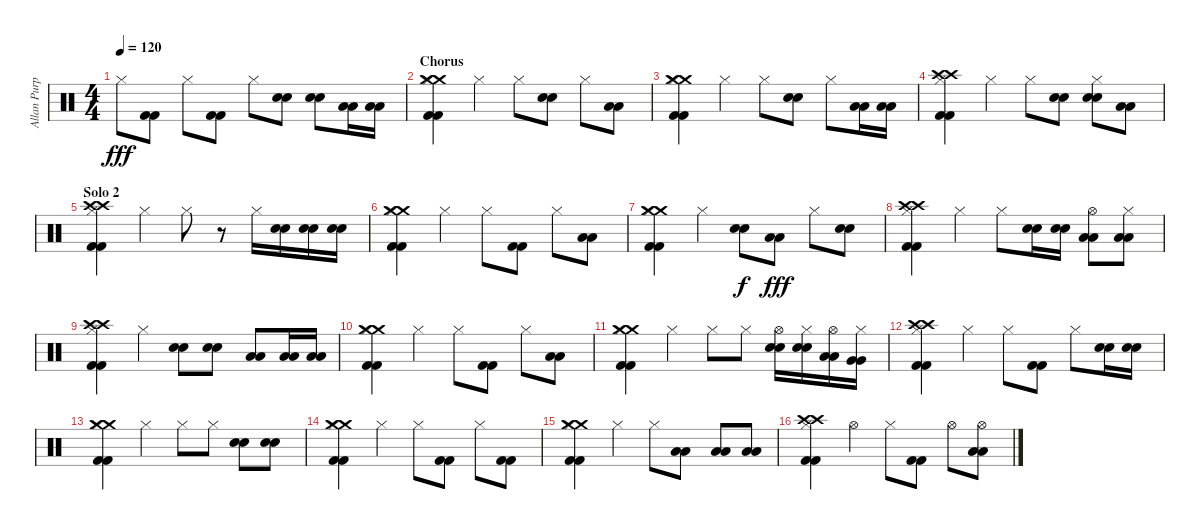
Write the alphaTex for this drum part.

\track ("Allan Purple" "Allan Purp") {instrument percussion}
\staff {score}
\articulation defaults
\ts (4 4)
\tempo 120
\clef neutral
\ks c "Hi-Hat (closed)".8{dy fff}
("Kick (hit) 2" "Kick (hit) 2").8 "Hi-Hat (closed)".8 ("Kick (hit) 2" "Kick (hit) 2").8 "Hi-Hat (closed)".8 ("Electric Snare (hit)" "Electric Snare (hit)").8 ("Electric Snare (hit)" "Electric Snare (hit)").8 ("Low Tom (hit)" "Low Tom (hit)").16 ("Low Tom (hit)" "Low Tom (hit)").16 |
\section ("" "Chorus")
("Crash medium (hit)" "Crash medium (hit)" "Hi-Hat (closed)" "Kick (hit) 2" "Kick (hit) 2").4 "Hi-Hat (closed)".4 "Hi-Hat (closed)".8 ("Electric Snare (hit)" "Electric Snare (hit)").8 "Hi-Hat (closed)".8 ("Low Tom (hit)" "Low Tom (hit)").8 |
("Crash medium (hit)" "Crash medium (hit)" "Hi-Hat (closed)" "Kick (hit) 2" "Kick (hit) 2").4 "Hi-Hat (closed)".4 "Hi-Hat (closed)".8 ("Electric Snare (hit)" "Electric Snare (hit)").8 "Hi-Hat (closed)".8 ("Low Tom (hit)" "Low Tom (hit)").16 ("Low Tom (hit)" "Low Tom (hit)").16 |
("Crash high (hit)" "Crash high (hit)" "Hi-Hat (closed)" "Kick (hit) 2" "Kick (hit) 2").4 "Hi-Hat (closed)".4 "Hi-Hat (closed)".8 ("Electric Snare (hit)" "Electric Snare (hit)").8 ("Hi-Hat (closed)" "Electric Snare (hit)" "Electric Snare (hit)").8 ("Low Tom (hit)" "Low Tom (hit)").8 |
\section ("" "Solo 2")
("Crash high (hit)" "Crash high (hit)" "Hi-Hat (closed)" "Kick (hit) 2" "Kick (hit) 2").4 "Hi-Hat (closed)".4 "Hi-Hat (closed)".8 r.8 "Hi-Hat (closed)".16 ("Electric Snare (hit)" "Electric Snare (hit)").16 ("Electric Snare (hit)" "Electric Snare (hit)").16 ("Electric Snare (hit)" "Electric Snare (hit)").16 |
("Crash medium (hit)" "Crash medium (hit)" "Hi-Hat (closed)" "Kick (hit) 2" "Kick (hit) 2").4 "Hi-Hat (closed)".4 "Hi-Hat (closed)".8 ("Kick (hit) 2" "Kick (hit) 2").8 "Hi-Hat (closed)".8 ("Low Tom (hit)" "Low Tom (hit)").8 |
("Crash medium (hit)" "Crash medium (hit)" "Hi-Hat (closed)" "Kick (hit) 2" "Kick (hit) 2").4 "Hi-Hat (closed)".4 ("Electric Snare (hit)" "Electric Snare (hit)").8{dy f} ("Low Tom (hit)" "Low Tom (hit)").8{dy fff} "Hi-Hat (closed)".8 ("Electric Snare (hit)" "Electric Snare (hit)").8 |
("Crash high (hit)" "Crash high (hit)" "Hi-Hat (closed)" "Kick (hit) 2" "Kick (hit) 2").4 "Hi-Hat (closed)".4 "Hi-Hat (closed)".8 ("Electric Snare (hit)" "Electric Snare (hit)").16 ("Electric Snare (hit)" "Electric Snare (hit)").16 ("Hi-Hat (open)" "Low Tom (hit)" "Low Tom (hit)").8 ("Hi-Hat (closed)" "Low Tom (hit)" "Low Tom (hit)").8 |
("Crash high (hit)" "Crash high (hit)" "Hi-Hat (closed)" "Kick (hit) 2" "Kick (hit) 2").4 "Hi-Hat (closed)".4 ("Electric Snare (hit)" "Electric Snare (hit)").8 ("Electric Snare (hit)" "Electric Snare (hit)").8 ("Low Tom (hit)" "Low Tom (hit)").8 ("Low Tom (hit)" "Low Tom (hit)").16 ("Low Tom (hit)" "Low Tom (hit)").16 |
("Crash medium (hit)" "Crash medium (hit)" "Hi-Hat (closed)" "Kick (hit) 2" "Kick (hit) 2").4 "Hi-Hat (closed)".4 "Hi-Hat (closed)".8 ("Kick (hit) 2" "Kick (hit) 2").8 "Hi-Hat (closed)".8 ("Low Tom (hit)" "Low Tom (hit)").8 |
("Crash medium (hit)" "Crash medium (hit)" "Hi-Hat (closed)" "Kick (hit) 2" "Kick (hit) 2").4 "Hi-Hat (closed)".4 "Hi-Hat (closed)".8 "Hi-Hat (closed)".8 ("Hi-Hat (open)" "Electric Snare (hit)" "Electric Snare (hit)").16 ("Hi-Hat (closed)" "Electric Snare (hit)" "Electric Snare (hit)").16 ("Hi-Hat (open)" "Low Tom (hit)" "Low Tom (hit)").16 ("Hi-Hat (closed)" "Very Low Tom (hit)" "Very Low Tom (hit)").16 |
("Crash high (hit)" "Crash high (hit)" "Hi-Hat (closed)" "Kick (hit) 2" "Kick (hit) 2").4 "Hi-Hat (closed)".4 "Hi-Hat (closed)".8 ("Kick (hit) 2" "Kick (hit) 2").8 "Hi-Hat (closed)".8 ("Electric Snare (hit)" "Electric Snare (hit)").16 ("Electric Snare (hit)" "Electric Snare (hit)").16 |
("Crash medium (hit)" "Crash medium (hit)" "Hi-Hat (closed)" "Kick (hit) 2" "Kick (hit) 2").4 "Hi-Hat (closed)".4 "Hi-Hat (closed)".8 "Hi-Hat (closed)".8 ("Electric Snare (hit)" "Electric Snare (hit)").8 ("Electric Snare (hit)" "Electric Snare (hit)").8 |
("Crash medium (hit)" "Crash medium (hit)" "Hi-Hat (closed)" "Kick (hit) 2" "Kick (hit) 2").4 "Hi-Hat (closed)".4 "Hi-Hat (closed)".8 ("Kick (hit) 2" "Kick (hit) 2").8 "Hi-Hat (closed)".8 ("Kick (hit) 2" "Kick (hit) 2").8 |
("Crash medium (hit)" "Crash medium (hit)" "Hi-Hat (closed)" "Kick (hit) 2" "Kick (hit) 2").4 "Hi-Hat (closed)".4 "Hi-Hat (closed)".8 ("Low Tom (hit)" "Low Tom (hit)").8 ("Low Tom (hit)" "Low Tom (hit)").8 ("Low Tom (hit)" "Low Tom (hit)").8 |
("Crash high (hit)" "Crash high (hit)" "Hi-Hat (closed)" "Kick (hit) 2" "Kick (hit) 2").4 "Hi-Hat (open)".4 "Hi-Hat (closed)".8 ("Kick (hit) 2" "Kick (hit) 2").8 "Hi-Hat (open)".8 ("Hi-Hat (open)" "Low Tom (hit)" "Low Tom (hit)").8
